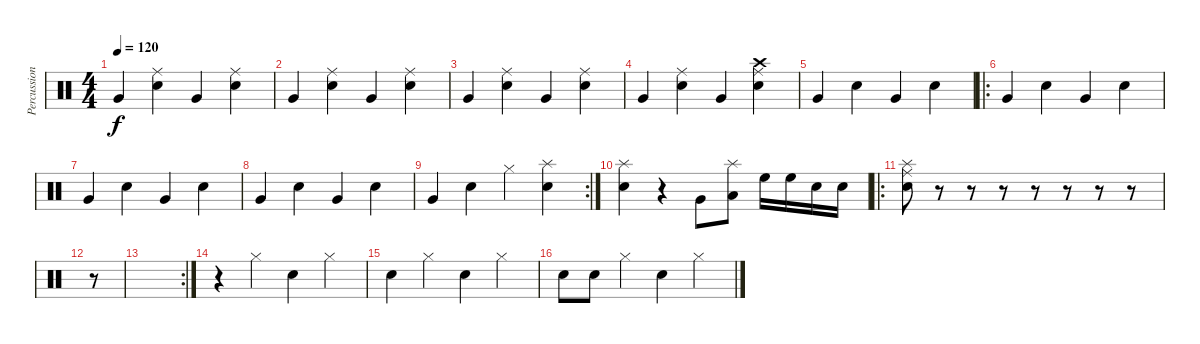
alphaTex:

\track ("Percussion" "Percussion") {instrument percussion}
\staff {score}
\articulation defaults
\ts (4 4)
\tempo 120
\clef neutral
\ks c "Very Low Tom (hit)".4{dy f}
("Ride (middle)" "Snare (hit) 2").4 "Very Low Tom (hit)".4 ("Ride (middle)" "Snare (hit) 2").4 |
"Very Low Tom (hit)".4 ("Ride (middle)" "Snare (hit) 2").4 "Very Low Tom (hit)".4 ("Ride (middle)" "Snare (hit) 2").4 |
"Very Low Tom (hit)".4 ("Ride (middle)" "Snare (hit) 2").4 "Very Low Tom (hit)".4 ("Ride (middle)" "Snare (hit) 2").4 |
"Very Low Tom (hit)".4 ("Ride (middle)" "Snare (hit) 2").4 "Very Low Tom (hit)".4 ("Crash high (hit)" "Ride (middle)" "Snare (hit) 2").4 |
"Very Low Tom (hit)".4 "Snare (hit) 2".4 "Very Low Tom (hit)".4 "Snare (hit) 2".4 |
\ro "Very Low Tom (hit)".4 "Snare (hit) 2".4 "Very Low Tom (hit)".4 "Snare (hit) 2".4
|
"Very Low Tom (hit)".4 "Snare (hit) 2".4 "Very Low Tom (hit)".4 "Snare (hit) 2".4 |
"Very Low Tom (hit)".4 "Snare (hit) 2".4 "Very Low Tom (hit)".4 "Snare (hit) 2".4 |
\rc 2 "Very Low Tom (hit)".4 "Snare (hit) 2".4 "Hi-Hat (closed)".4
("Splash (hit)" "Snare (hit) 2").4 |
("Splash (hit)" "Snare (hit) 2").4 r.4 "Very Low Tom (hit)".8 ("Splash (hit)" "Low Floor Tom (hit)").8 "High Floor Tom (hit)".16 "High Floor Tom (hit)".16 "Electric Snare (hit)".16 "Electric Snare (hit)".16 |
\ro
("Splash (hit)" "Ride (middle)" "Electric Snare (hit)").8 r.8 r.8 r.8 r.8 r.8 r.8 r.8 |
r.8 |
\rc 2
|
r.4 "Hi-Hat (closed)".4 "Electric Snare (hit)".4 "Hi-Hat (closed)".4 |
"Snare (hit) 2".4 "Hi-Hat (closed)".4 "Electric Snare (hit)".4 "Hi-Hat (closed)".4 |
"Snare (hit) 2".8 "Snare (hit) 2".8 "Hi-Hat (closed)".4 "Electric Snare (hit)".4 "Hi-Hat (closed)".4
